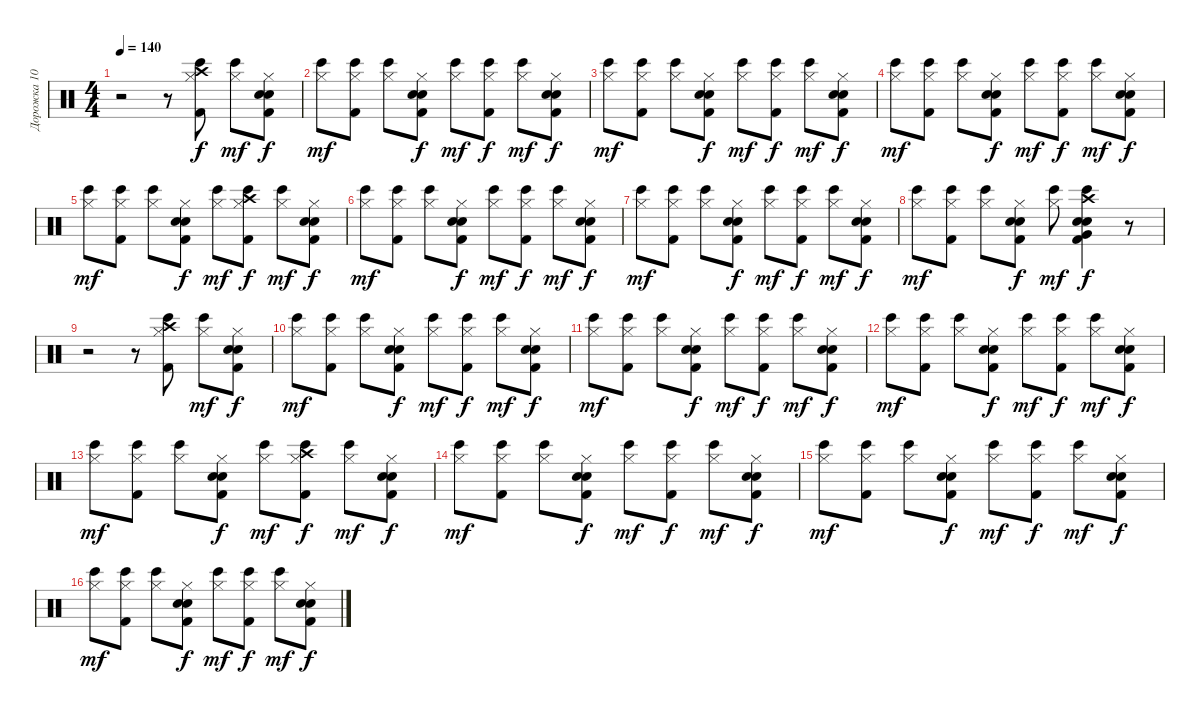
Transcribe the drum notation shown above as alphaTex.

\track ("Дорожка 10" "Дорожка 10") {instrument percussion}
\staff {score}
\articulation defaults
\ts (4 4)
\tempo 140
\clef neutral
\ks c
r.2{dy f} r.8 ("Bongo High (hit)" "Hi-Hat (closed)" "Crash high (hit)" "Kick (hit) 2").8 ("Bongo High (hit)" "Hi-Hat (closed)").8{dy mf} ("Hi-Hat (closed)" "Snare (hit) 2" "Hand Clap (hit)" "Kick (hit) 2").8{dy f} |
("Hi-Hat (closed)" "Bongo High (hit)").8{dy mf} ("Hi-Hat (closed)" "Kick (hit) 2" "Bongo High (hit)").8 ("Hi-Hat (closed)" "Bongo High (hit)").8 ("Hi-Hat (closed)" "Hand Clap (hit)" "Kick (hit) 2" "Snare (hit) 2").8{dy f} ("Bongo High (hit)" "Hi-Hat (closed)").8{dy mf} ("Kick (hit) 2" "Bongo High (hit)" "Hi-Hat (closed)").8{dy f} ("Bongo High (hit)" "Hi-Hat (closed)").8{dy mf} ("Snare (hit) 2" "Kick (hit) 2" "Hand Clap (hit)" "Hi-Hat (closed)").8{dy f} |
("Hi-Hat (closed)" "Bongo High (hit)").8{dy mf} ("Kick (hit) 2" "Hi-Hat (closed)" "Bongo High (hit)").8 ("Hi-Hat (closed)" "Bongo High (hit)").8 ("Kick (hit) 2" "Snare (hit) 2" "Hand Clap (hit)" "Hi-Hat (closed)").8{dy f} ("Bongo High (hit)" "Hi-Hat (closed)").8{dy mf} ("Hi-Hat (closed)" "Bongo High (hit)" "Kick (hit) 2").8{dy f} ("Bongo High (hit)" "Hi-Hat (closed)").8{dy mf} ("Hi-Hat (closed)" "Hand Clap (hit)" "Snare (hit) 2" "Kick (hit) 2").8{dy f} |
("Hi-Hat (closed)" "Bongo High (hit)").8{dy mf} ("Hi-Hat (closed)" "Kick (hit) 2" "Bongo High (hit)").8 ("Hi-Hat (closed)" "Bongo High (hit)").8 ("Hi-Hat (closed)" "Hand Clap (hit)" "Kick (hit) 2" "Snare (hit) 2").8{dy f} ("Hi-Hat (closed)" "Bongo High (hit)").8{dy mf} ("Hi-Hat (closed)" "Bongo High (hit)" "Kick (hit) 2").8{dy f} ("Bongo High (hit)" "Hi-Hat (closed)").8{dy mf} ("Hi-Hat (closed)" "Hand Clap (hit)" "Snare (hit) 2" "Kick (hit) 2").8{dy f} |
("Hi-Hat (closed)" "Bongo High (hit)").8{dy mf} ("Hi-Hat (closed)" "Kick (hit) 2" "Bongo High (hit)").8 ("Hi-Hat (closed)" "Bongo High (hit)").8 ("Hi-Hat (closed)" "Hand Clap (hit)" "Kick (hit) 2" "Snare (hit) 2").8{dy f} ("Hi-Hat (closed)" "Bongo High (hit)").8{dy mf} ("Bongo High (hit)" "Hi-Hat (closed)" "Crash high (hit)" "Kick (hit) 2").8{dy f} ("Bongo High (hit)" "Hi-Hat (closed)").8{dy mf} ("Hi-Hat (closed)" "Snare (hit) 2" "Hand Clap (hit)" "Kick (hit) 2").8{dy f} |
("Hi-Hat (closed)" "Bongo High (hit)").8{dy mf} ("Hi-Hat (closed)" "Kick (hit) 2" "Bongo High (hit)").8 ("Hi-Hat (closed)" "Bongo High (hit)").8 ("Hi-Hat (closed)" "Hand Clap (hit)" "Kick (hit) 2" "Snare (hit) 2").8{dy f} ("Bongo High (hit)" "Hi-Hat (closed)").8{dy mf} ("Kick (hit) 2" "Bongo High (hit)" "Hi-Hat (closed)").8{dy f} ("Bongo High (hit)" "Hi-Hat (closed)").8{dy mf} ("Snare (hit) 2" "Kick (hit) 2" "Hand Clap (hit)" "Hi-Hat (closed)").8{dy f} |
("Hi-Hat (closed)" "Bongo High (hit)").8{dy mf} ("Kick (hit) 2" "Hi-Hat (closed)" "Bongo High (hit)").8 ("Hi-Hat (closed)" "Bongo High (hit)").8 ("Kick (hit) 2" "Snare (hit) 2" "Hand Clap (hit)" "Hi-Hat (closed)").8{dy f} ("Bongo High (hit)" "Hi-Hat (closed)").8{dy mf} ("Hi-Hat (closed)" "Bongo High (hit)" "Kick (hit) 2").8{dy f} ("Bongo High (hit)" "Hi-Hat (closed)").8{dy mf} ("Hi-Hat (closed)" "Hand Clap (hit)" "Snare (hit) 2" "Kick (hit) 2").8{dy f} |
("Hi-Hat (closed)" "Bongo High (hit)").8{dy mf} ("Hi-Hat (closed)" "Kick (hit) 2" "Bongo High (hit)").8 ("Hi-Hat (closed)" "Bongo High (hit)").8 ("Hi-Hat (closed)" "Hand Clap (hit)" "Kick (hit) 2" "Snare (hit) 2").8{dy f} ("Hi-Hat (closed)" "Bongo High (hit)").8{dy mf} ("Bongo High (hit)" "Very Low Tom (hit)" "Electric Snare (hit)" "Snare (hit) 2" "Kick (hit) 2" "Crash high (hit)").4{dy f} r.8 |
r.2 r.8 ("Bongo High (hit)" "Hi-Hat (closed)" "Crash high (hit)" "Kick (hit) 2").8 ("Bongo High (hit)" "Hi-Hat (closed)").8{dy mf} ("Hi-Hat (closed)" "Snare (hit) 2" "Hand Clap (hit)" "Kick (hit) 2").8{dy f} |
("Hi-Hat (closed)" "Bongo High (hit)").8{dy mf} ("Hi-Hat (closed)" "Kick (hit) 2" "Bongo High (hit)").8 ("Hi-Hat (closed)" "Bongo High (hit)").8 ("Hi-Hat (closed)" "Hand Clap (hit)" "Kick (hit) 2" "Snare (hit) 2").8{dy f} ("Bongo High (hit)" "Hi-Hat (closed)").8{dy mf} ("Kick (hit) 2" "Bongo High (hit)" "Hi-Hat (closed)").8{dy f} ("Bongo High (hit)" "Hi-Hat (closed)").8{dy mf} ("Snare (hit) 2" "Kick (hit) 2" "Hand Clap (hit)" "Hi-Hat (closed)").8{dy f} |
("Hi-Hat (closed)" "Bongo High (hit)").8{dy mf} ("Kick (hit) 2" "Hi-Hat (closed)" "Bongo High (hit)").8 ("Hi-Hat (closed)" "Bongo High (hit)").8 ("Kick (hit) 2" "Snare (hit) 2" "Hand Clap (hit)" "Hi-Hat (closed)").8{dy f} ("Bongo High (hit)" "Hi-Hat (closed)").8{dy mf} ("Hi-Hat (closed)" "Bongo High (hit)" "Kick (hit) 2").8{dy f} ("Bongo High (hit)" "Hi-Hat (closed)").8{dy mf} ("Hi-Hat (closed)" "Hand Clap (hit)" "Snare (hit) 2" "Kick (hit) 2").8{dy f} |
("Hi-Hat (closed)" "Bongo High (hit)").8{dy mf} ("Hi-Hat (closed)" "Kick (hit) 2" "Bongo High (hit)").8 ("Hi-Hat (closed)" "Bongo High (hit)").8 ("Hi-Hat (closed)" "Hand Clap (hit)" "Kick (hit) 2" "Snare (hit) 2").8{dy f} ("Hi-Hat (closed)" "Bongo High (hit)").8{dy mf} ("Hi-Hat (closed)" "Bongo High (hit)" "Kick (hit) 2").8{dy f} ("Bongo High (hit)" "Hi-Hat (closed)").8{dy mf} ("Hi-Hat (closed)" "Hand Clap (hit)" "Snare (hit) 2" "Kick (hit) 2").8{dy f} |
("Hi-Hat (closed)" "Bongo High (hit)").8{dy mf} ("Hi-Hat (closed)" "Kick (hit) 2" "Bongo High (hit)").8 ("Hi-Hat (closed)" "Bongo High (hit)").8 ("Hi-Hat (closed)" "Hand Clap (hit)" "Kick (hit) 2" "Snare (hit) 2").8{dy f} ("Hi-Hat (closed)" "Bongo High (hit)").8{dy mf} ("Bongo High (hit)" "Hi-Hat (closed)" "Crash high (hit)" "Kick (hit) 2").8{dy f} ("Bongo High (hit)" "Hi-Hat (closed)").8{dy mf} ("Hi-Hat (closed)" "Snare (hit) 2" "Hand Clap (hit)" "Kick (hit) 2").8{dy f} |
("Hi-Hat (closed)" "Bongo High (hit)").8{dy mf} ("Hi-Hat (closed)" "Kick (hit) 2" "Bongo High (hit)").8 ("Hi-Hat (closed)" "Bongo High (hit)").8 ("Hi-Hat (closed)" "Hand Clap (hit)" "Kick (hit) 2" "Snare (hit) 2").8{dy f} ("Bongo High (hit)" "Hi-Hat (closed)").8{dy mf} ("Kick (hit) 2" "Hi-Hat (closed)" "Bongo High (hit)").8{dy f} ("Bongo High (hit)" "Hi-Hat (closed)").8{dy mf} ("Snare (hit) 2" "Kick (hit) 2" "Hi-Hat (closed)" "Hand Clap (hit)").8{dy f} |
("Hi-Hat (closed)" "Bongo High (hit)").8{dy mf} ("Kick (hit) 2" "Hi-Hat (closed)" "Bongo High (hit)").8 ("Hi-Hat (closed)" "Bongo High (hit)").8 ("Kick (hit) 2" "Snare (hit) 2" "Hi-Hat (closed)" "Hand Clap (hit)").8{dy f} ("Hi-Hat (closed)" "Bongo High (hit)").8{dy mf} ("Bongo High (hit)" "Kick (hit) 2" "Hi-Hat (closed)").8{dy f} ("Bongo High (hit)" "Hi-Hat (closed)").8{dy mf} ("Hand Clap (hit)" "Snare (hit) 2" "Kick (hit) 2" "Hi-Hat (closed)").8{dy f} |
("Hi-Hat (closed)" "Bongo High (hit)").8{dy mf} ("Kick (hit) 2" "Hi-Hat (closed)" "Bongo High (hit)").8 ("Hi-Hat (closed)" "Bongo High (hit)").8 ("Hand Clap (hit)" "Kick (hit) 2" "Snare (hit) 2" "Hi-Hat (closed)").8{dy f} ("Bongo High (hit)" "Hi-Hat (closed)").8{dy mf} ("Bongo High (hit)" "Kick (hit) 2" "Hi-Hat (closed)").8{dy f} ("Bongo High (hit)" "Hi-Hat (closed)").8{dy mf} ("Hand Clap (hit)" "Snare (hit) 2" "Kick (hit) 2" "Hi-Hat (closed)").8{dy f}
